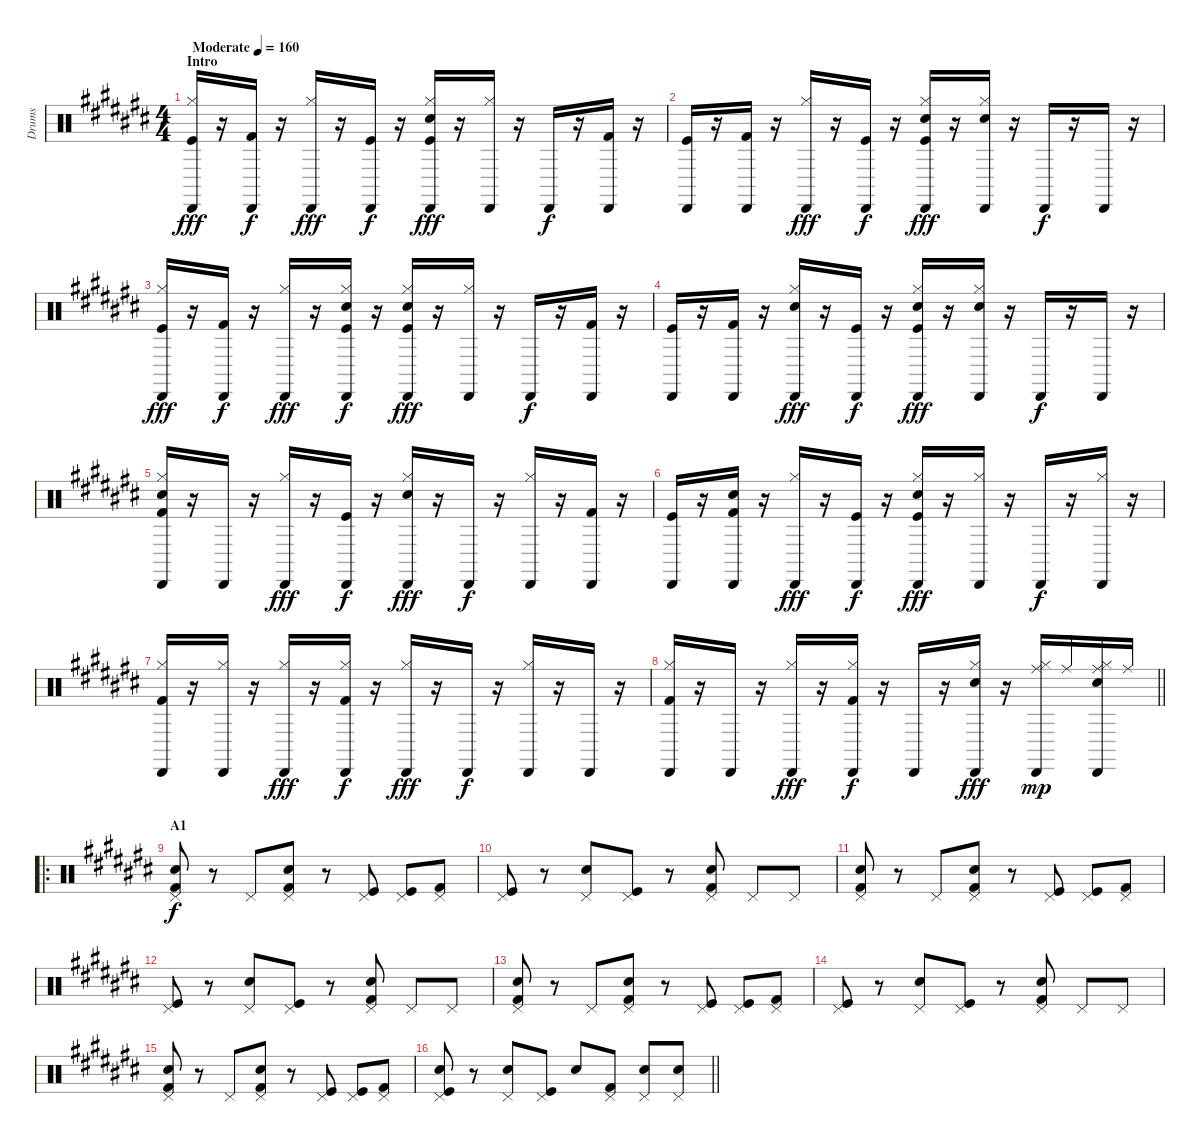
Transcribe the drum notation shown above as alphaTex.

\track ("Drums" "Drums") {instrument percussion}
\staff {score}
\articulation defaults
\ts (4 4)
\section ("" "Intro")
\tempo (160 "Moderate")
\clef neutral
\ks c#
("Cabasa (hit)" "Hi-Hat (closed)" "Kick (hit)").16{dy fff} r.16 ("Cabasa (hit)" "Kick (hit) 2").16{dy f} r.16 ("Cabasa (hit)" "Hi-Hat (closed)").16{dy fff} r.16 ("Cabasa (hit)" "Kick (hit)").16{dy f} r.16 ("Cabasa (hit)" "Hi-Hat (closed)" "Electric Snare (hit)" "Kick (hit)").16{dy fff} r.16 ("Cabasa (hit)" "Hi-Hat (closed)").16 r.16 "Cabasa (hit)".16{dy f} r.16 ("Cabasa (hit)" "Kick (hit) 2").16 r.16 |
("Cabasa (hit)" "Kick (hit)").16 r.16 ("Cabasa (hit)" "Kick (hit) 2").16 r.16 ("Cabasa (hit)" "Hi-Hat (closed)").16{dy fff} r.16 ("Cabasa (hit)" "Kick (hit)").16{dy f} r.16 ("Cabasa (hit)" "Hi-Hat (closed)" "Electric Snare (hit)" "Kick (hit)").16{dy fff} r.16 ("Cabasa (hit)" "Hi-Hat (closed)" "Electric Snare (hit)").16 r.16 "Cabasa (hit)".16{dy f} r.16 "Cabasa (hit)".16 r.16 |
("Cabasa (hit)" "Hi-Hat (closed)" "Kick (hit)").16{dy fff} r.16 ("Cabasa (hit)" "Kick (hit) 2").16{dy f} r.16 ("Cabasa (hit)" "Hi-Hat (closed)").16{dy fff} r.16 ("Cabasa (hit)" "Hi-Hat (closed)" "Electric Snare (hit)" "Kick (hit)").16{dy f} r.16 ("Cabasa (hit)" "Hi-Hat (closed)" "Electric Snare (hit)" "Kick (hit)").16{dy fff} r.16 ("Cabasa (hit)" "Hi-Hat (closed)").16 r.16 "Cabasa (hit)".16{dy f} r.16 ("Cabasa (hit)" "Kick (hit) 2").16 r.16 |
("Cabasa (hit)" "Kick (hit)").16 r.16 ("Cabasa (hit)" "Kick (hit) 2").16 r.16 ("Cabasa (hit)" "Hi-Hat (closed)" "Electric Snare (hit)").16{dy fff} r.16 ("Cabasa (hit)" "Kick (hit)").16{dy f} r.16 ("Cabasa (hit)" "Hi-Hat (closed)" "Electric Snare (hit)" "Kick (hit)").16{dy fff} r.16 ("Cabasa (hit)" "Hi-Hat (closed)" "Electric Snare (hit)").16 r.16 "Cabasa (hit)".16{dy f} r.16 "Cabasa (hit)".16 r.16 |
("Cabasa (hit)" "Hi-Hat (closed)" "Electric Snare (hit)" "Kick (hit) 2").16 r.16 "Cabasa (hit)".16 r.16 ("Cabasa (hit)" "Hi-Hat (closed)").16{dy fff} r.16 ("Cabasa (hit)" "Kick (hit)").16{dy f} r.16 ("Cabasa (hit)" "Hi-Hat (closed)" "Electric Snare (hit)").16{dy fff} r.16 "Cabasa (hit)".16{dy f} r.16 ("Cabasa (hit)" "Hi-Hat (closed)").16 r.16 ("Cabasa (hit)" "Kick (hit) 2").16 r.16 |
("Cabasa (hit)" "Kick (hit)").16 r.16 ("Cabasa (hit)" "Electric Snare (hit)" "Kick (hit) 2").16 r.16 ("Cabasa (hit)" "Hi-Hat (closed)").16{dy fff} r.16 ("Cabasa (hit)" "Kick (hit)").16{dy f} r.16 ("Cabasa (hit)" "Hi-Hat (closed)" "Electric Snare (hit)" "Kick (hit)").16{dy fff} r.16 ("Cabasa (hit)" "Hi-Hat (closed)").16 r.16 "Cabasa (hit)".16{dy f} r.16 ("Cabasa (hit)" "Hi-Hat (closed)").16 r.16 |
("Cabasa (hit)" "Hi-Hat (closed)" "Kick (hit) 2").16 r.16 ("Cabasa (hit)" "Hi-Hat (closed)").16 r.16 ("Cabasa (hit)" "Hi-Hat (closed)").16{dy fff} r.16 ("Cabasa (hit)" "Hi-Hat (closed)" "Kick (hit) 2").16{dy f} r.16 ("Cabasa (hit)" "Hi-Hat (closed)").16{dy fff} r.16 "Cabasa (hit)".16{dy f} r.16 ("Cabasa (hit)" "Hi-Hat (closed)").16 r.16 "Cabasa (hit)".16 r.16 |
\barLineRight lightlight
("Cabasa (hit)" "Hi-Hat (closed)" "Kick (hit) 2").16 r.16 "Cabasa (hit)".16 r.16 ("Cabasa (hit)" "Hi-Hat (closed)").16{dy fff} r.16 ("Cabasa (hit)" "Hi-Hat (closed)" "Kick (hit) 2").16{dy f} r.16 "Cabasa (hit)".16 r.16 ("Cabasa (hit)" "Hi-Hat (closed)" "Electric Snare (hit)").16{dy fff} r.16 ("Cabasa (hit)" "Hi-Hat (closed)" "Ride (middle)").16{dy mp} "Ride (middle)".16 ("Cabasa (hit)" "Hi-Hat (closed)" "Electric Snare (hit)" "Ride (middle)").16 "Ride (middle)".16 |
\ro
\section ("" "A1")
("Pedal Hi-Hat (hit)" "Electric Snare (hit)" "Kick (hit) 2").8{dy f} r.8 "Pedal Hi-Hat (hit)".8 ("Pedal Hi-Hat (hit)" "Electric Snare (hit)" "Kick (hit) 2").8 r.8 ("Pedal Hi-Hat (hit)" "Kick (hit)").8 ("Pedal Hi-Hat (hit)" "Kick (hit)").8 ("Pedal Hi-Hat (hit)" "Kick (hit) 2").8 |
("Pedal Hi-Hat (hit)" "Kick (hit)").8 r.8 ("Pedal Hi-Hat (hit)" "Electric Snare (hit)").8 ("Pedal Hi-Hat (hit)" "Kick (hit)").8 r.8 ("Pedal Hi-Hat (hit)" "Electric Snare (hit)" "Kick (hit) 2").8 "Pedal Hi-Hat (hit)".8 "Pedal Hi-Hat (hit)".8 |
("Pedal Hi-Hat (hit)" "Electric Snare (hit)" "Kick (hit) 2").8 r.8 "Pedal Hi-Hat (hit)".8 ("Pedal Hi-Hat (hit)" "Electric Snare (hit)" "Kick (hit) 2").8 r.8 ("Pedal Hi-Hat (hit)" "Kick (hit)").8 ("Pedal Hi-Hat (hit)" "Kick (hit)").8 ("Pedal Hi-Hat (hit)" "Kick (hit) 2").8 |
("Pedal Hi-Hat (hit)" "Kick (hit)").8 r.8 ("Pedal Hi-Hat (hit)" "Electric Snare (hit)").8 ("Pedal Hi-Hat (hit)" "Kick (hit)").8 r.8 ("Pedal Hi-Hat (hit)" "Electric Snare (hit)" "Kick (hit) 2").8 "Pedal Hi-Hat (hit)".8 "Pedal Hi-Hat (hit)".8 |
("Pedal Hi-Hat (hit)" "Electric Snare (hit)" "Kick (hit) 2").8 r.8 "Pedal Hi-Hat (hit)".8 ("Pedal Hi-Hat (hit)" "Electric Snare (hit)" "Kick (hit) 2").8 r.8 ("Pedal Hi-Hat (hit)" "Kick (hit)").8 ("Pedal Hi-Hat (hit)" "Kick (hit)").8 ("Pedal Hi-Hat (hit)" "Kick (hit) 2").8 |
("Pedal Hi-Hat (hit)" "Kick (hit)").8 r.8 ("Pedal Hi-Hat (hit)" "Electric Snare (hit)").8 ("Pedal Hi-Hat (hit)" "Kick (hit)").8 r.8 ("Pedal Hi-Hat (hit)" "Electric Snare (hit)" "Kick (hit) 2").8 "Pedal Hi-Hat (hit)".8 "Pedal Hi-Hat (hit)".8 |
("Pedal Hi-Hat (hit)" "Electric Snare (hit)" "Kick (hit) 2").8 r.8 "Pedal Hi-Hat (hit)".8 ("Pedal Hi-Hat (hit)" "Electric Snare (hit)" "Kick (hit) 2").8 r.8 ("Pedal Hi-Hat (hit)" "Kick (hit)").8 ("Pedal Hi-Hat (hit)" "Kick (hit)").8 ("Pedal Hi-Hat (hit)" "Kick (hit) 2").8 |
\barLineRight lightlight
("Pedal Hi-Hat (hit)" "Electric Snare (hit)" "Kick (hit)").8 r.8 ("Pedal Hi-Hat (hit)" "Electric Snare (hit)").8 ("Pedal Hi-Hat (hit)" "Kick (hit)").8 "Electric Snare (hit)".8 ("Pedal Hi-Hat (hit)" "Kick (hit) 2").8 ("Pedal Hi-Hat (hit)" "Electric Snare (hit)").8 ("Pedal Hi-Hat (hit)" "Electric Snare (hit)").8
